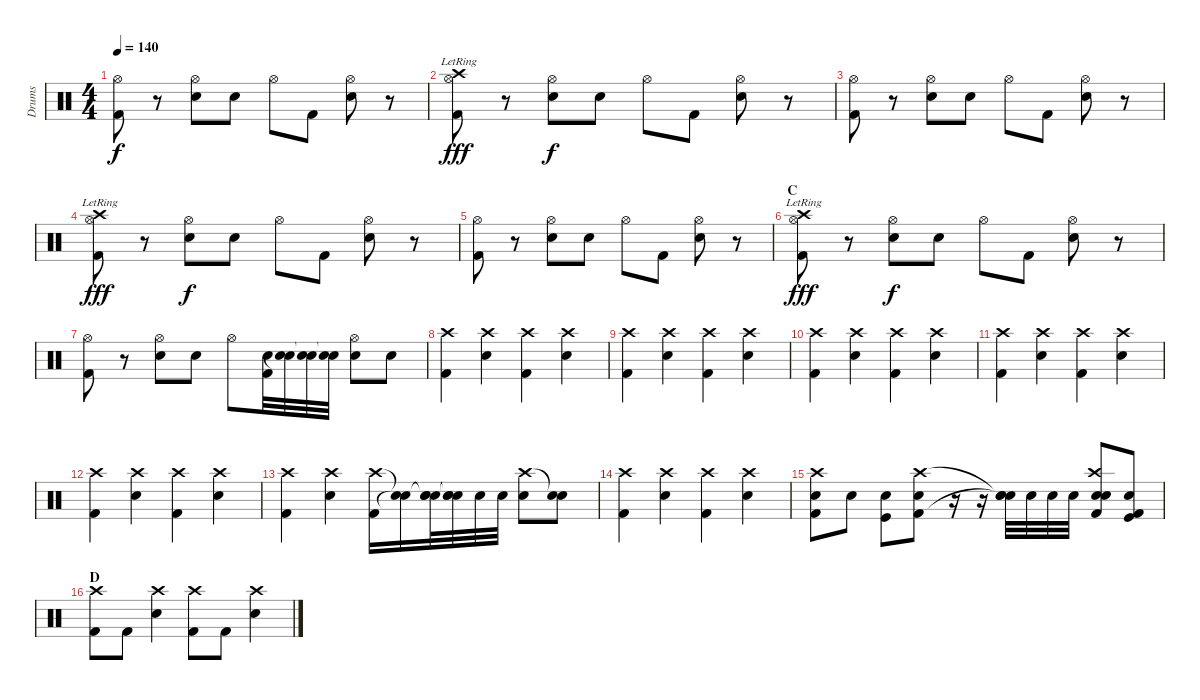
\track ("Drums" "Drums") {instrument percussion}
\staff {score}
\articulation defaults
\ts (4 4)
\tempo 140
\clef neutral
\ks c
("Hi-Hat (open)" "Kick (hit) 2").8{dy f} r.8 ("Hi-Hat (open)" "Electric Snare (hit)").8 "Electric Snare (hit)".8 "Hi-Hat (open)".8 "Kick (hit) 2".8 ("Hi-Hat (open)" "Electric Snare (hit)").8 r.8 |
("Hi-Hat (open)" "Crash high (hit)"{lr} "Kick (hit) 2").8{dy fff} r.8 ("Hi-Hat (open)" "Electric Snare (hit)").8{dy f} "Electric Snare (hit)".8 "Hi-Hat (open)".8 "Kick (hit) 2".8 ("Hi-Hat (open)" "Electric Snare (hit)").8 r.8 |
("Hi-Hat (open)" "Kick (hit) 2").8 r.8 ("Hi-Hat (open)" "Electric Snare (hit)").8 "Electric Snare (hit)".8 "Hi-Hat (open)".8 "Kick (hit) 2".8 ("Hi-Hat (open)" "Electric Snare (hit)").8 r.8 |
("Hi-Hat (open)" "Crash high (hit)"{lr} "Kick (hit) 2").8{dy fff} r.8 ("Hi-Hat (open)" "Electric Snare (hit)").8{dy f} "Electric Snare (hit)".8 "Hi-Hat (open)".8 "Kick (hit) 2".8 ("Hi-Hat (open)" "Electric Snare (hit)").8 r.8 |
("Hi-Hat (open)" "Kick (hit) 2").8 r.8 ("Hi-Hat (open)" "Electric Snare (hit)").8 "Electric Snare (hit)".8 "Hi-Hat (open)".8 "Kick (hit) 2".8 ("Hi-Hat (open)" "Electric Snare (hit)").8 r.8 |
\section ("" "C")
("Hi-Hat (open)" "Crash high (hit)"{lr} "Kick (hit) 2").8{dy fff} r.8 ("Hi-Hat (open)" "Electric Snare (hit)").8{dy f} "Electric Snare (hit)".8 "Hi-Hat (open)".8 "Kick (hit) 2".8 ("Hi-Hat (open)" "Electric Snare (hit)").8 r.8 |
("Hi-Hat (open)" "Kick (hit) 2").8 r.8 ("Hi-Hat (open)" "Electric Snare (hit)").8 "Electric Snare (hit)".8 "Hi-Hat (open)".8 ("Electric Snare (hit)" "Kick (hit) 2").32 ("Electric Snare (hit)" "Snare (hit)"{t}).32 ("Electric Snare (hit)" "Snare (hit)"{t}).32 ("Electric Snare (hit)" "Snare (hit)"{t}).32 ("Hi-Hat (open)" "Electric Snare (hit)").8 "Electric Snare (hit)".8 |
("Crash high (hit)" "Kick (hit) 2").4 ("Crash high (hit)" "Electric Snare (hit)").4 ("Crash high (hit)" "Kick (hit) 2").4 ("Crash high (hit)" "Electric Snare (hit)").4 |
("Crash high (hit)" "Kick (hit) 2").4 ("Crash high (hit)" "Electric Snare (hit)").4 ("Crash high (hit)" "Kick (hit) 2").4 ("Crash high (hit)" "Electric Snare (hit)").4 |
("Crash high (hit)" "Kick (hit) 2").4 ("Crash high (hit)" "Electric Snare (hit)").4 ("Crash high (hit)" "Kick (hit) 2").4 ("Crash high (hit)" "Electric Snare (hit)").4 |
("Crash high (hit)" "Kick (hit) 2").4 ("Crash high (hit)" "Electric Snare (hit)").4 ("Crash high (hit)" "Kick (hit) 2").4 ("Crash high (hit)" "Electric Snare (hit)").4 |
("Crash high (hit)" "Kick (hit) 2").4 ("Crash high (hit)" "Electric Snare (hit)").4 ("Crash high (hit)" "Kick (hit) 2").4 ("Crash high (hit)" "Electric Snare (hit)").4 |
("Crash high (hit)" "Kick (hit) 2").4 ("Crash high (hit)" "Electric Snare (hit)").4 ("Crash high (hit)" "Kick (hit) 2").16 ("Snare (hit)"{t} "Snare (hit)"{t}).16 ("Snare (hit)"{t} "Electric Snare (hit)" "Snare (hit)").32 ("Snare (hit)"{t} "Electric Snare (hit)" "Snare (hit)"{t}).32 "Electric Snare (hit)".32 "Electric Snare (hit)".32 ("Crash high (hit)" "Electric Snare (hit)").8 ("Snare (hit)"{t} "Electric Snare (hit)").8 |
("Crash high (hit)" "Kick (hit) 2").4 ("Crash high (hit)" "Electric Snare (hit)").4 ("Crash high (hit)" "Kick (hit) 2").4 ("Crash high (hit)" "Electric Snare (hit)").4 |
("Crash high (hit)" "Electric Snare (hit)" "Kick (hit) 2").8 "Electric Snare (hit)".8 ("Kick (hit)" "Electric Snare (hit)").8 ("Crash high (hit)" "Electric Snare (hit)" "Kick (hit) 2").8 r.16 r.16 ("Snare (hit)"{t} "Electric Snare (hit)" "Snare (hit)"{t}).32 "Electric Snare (hit)".32 "Electric Snare (hit)".32 "Electric Snare (hit)".32 ("Crash high (hit)" "Electric Snare (hit)" "Snare (hit) 2" "Kick (hit) 2").8 ("Electric Snare (hit)" "Kick (hit)" "Kick (hit) 2").8 |
\section ("" "D")
("Crash high (hit)" "Kick (hit) 2").8 "Kick (hit) 2".8 ("Crash high (hit)" "Electric Snare (hit)").4 ("Crash high (hit)" "Kick (hit) 2").8 "Kick (hit) 2".8 ("Crash high (hit)" "Electric Snare (hit)").4
